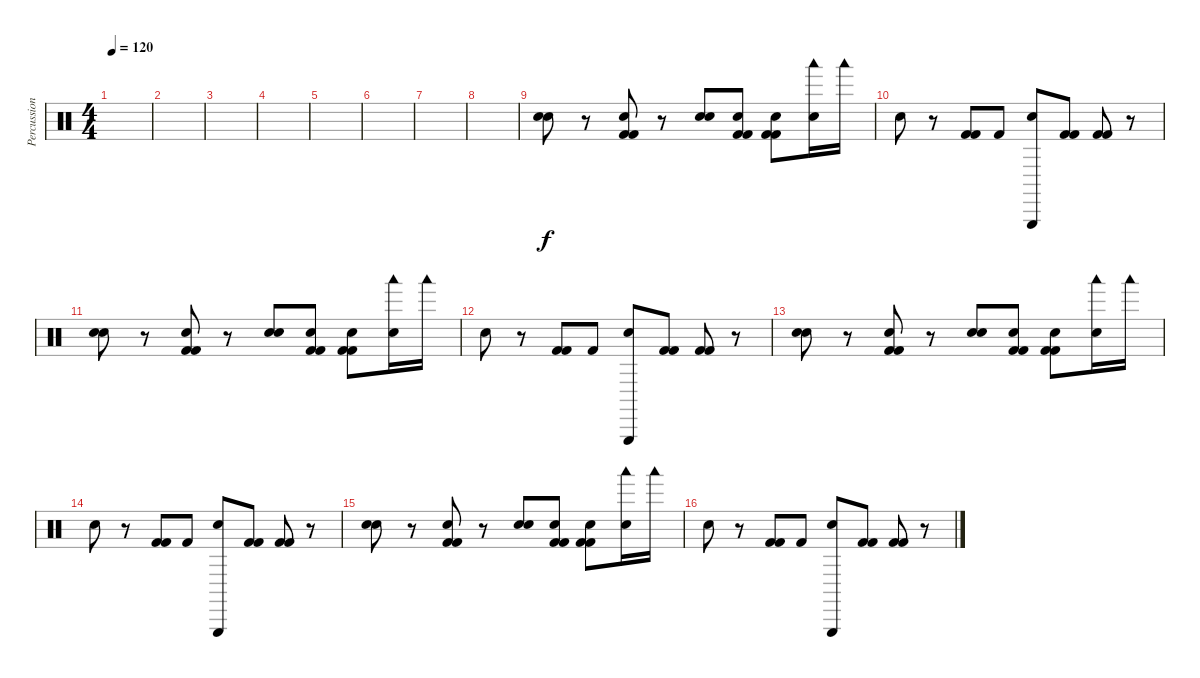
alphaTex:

\track ("Percussions" "Percussion") {instrument percussion}
\staff {score}
\articulation defaults
\ts (4 4)
\tempo 120
\clef neutral
\ks c
|
|
|
|
|
|
|
|
("Snare (hit) 2" "Metronome (bell)").8 r.8 ("Kick (hit) 2" "Metronome (bell)" "Kick (hit) 2").8 r.8 ("Snare (hit) 2" "Metronome (bell)").8 ("Kick (hit) 2" "Kick (hit) 2" "Metronome (bell)").8 ("Kick (hit) 2" "Kick (hit) 2" "Metronome (bell)").8 ("Woodblock low (hit)" "Metronome (bell)").16 "Woodblock low (hit)".16 |
"Snare (hit) 2".8 r.8 ("Kick (hit) 2" "Kick (hit) 2").8 "Kick (hit) 2".8 ("Snare (hit) 2" "Triangle (hit)").8 ("Kick (hit) 2" "Kick (hit) 2").8 ("Kick (hit) 2" "Kick (hit) 2").8 r.8 |
("Snare (hit) 2" "Metronome (bell)").8 r.8 ("Kick (hit) 2" "Metronome (bell)" "Kick (hit) 2").8 r.8 ("Snare (hit) 2" "Metronome (bell)").8 ("Kick (hit) 2" "Kick (hit) 2" "Metronome (bell)").8 ("Kick (hit) 2" "Kick (hit) 2" "Metronome (bell)").8 ("Woodblock low (hit)" "Metronome (bell)").16 "Woodblock low (hit)".16 |
"Snare (hit) 2".8 r.8 ("Kick (hit) 2" "Kick (hit) 2").8 "Kick (hit) 2".8 ("Snare (hit) 2" "Triangle (hit)").8 ("Kick (hit) 2" "Kick (hit) 2").8 ("Kick (hit) 2" "Kick (hit) 2").8 r.8 |
("Snare (hit) 2" "Metronome (bell)").8 r.8 ("Kick (hit) 2" "Metronome (bell)" "Kick (hit) 2").8 r.8 ("Snare (hit) 2" "Metronome (bell)").8 ("Kick (hit) 2" "Kick (hit) 2" "Metronome (bell)").8 ("Kick (hit) 2" "Kick (hit) 2" "Metronome (bell)").8 ("Woodblock low (hit)" "Metronome (bell)").16 "Woodblock low (hit)".16 |
"Snare (hit) 2".8 r.8 ("Kick (hit) 2" "Kick (hit) 2").8 "Kick (hit) 2".8 ("Snare (hit) 2" "Triangle (hit)").8 ("Kick (hit) 2" "Kick (hit) 2").8 ("Kick (hit) 2" "Kick (hit) 2").8 r.8 |
("Snare (hit) 2" "Metronome (bell)").8 r.8 ("Kick (hit) 2" "Metronome (bell)" "Kick (hit) 2").8 r.8 ("Snare (hit) 2" "Metronome (bell)").8 ("Kick (hit) 2" "Kick (hit) 2" "Metronome (bell)").8 ("Kick (hit) 2" "Kick (hit) 2" "Metronome (bell)").8 ("Woodblock low (hit)" "Metronome (bell)").16 "Woodblock low (hit)".16 |
"Snare (hit) 2".8 r.8 ("Kick (hit) 2" "Kick (hit) 2").8 "Kick (hit) 2".8 ("Snare (hit) 2" "Triangle (hit)").8 ("Kick (hit) 2" "Kick (hit) 2").8 ("Kick (hit) 2" "Kick (hit) 2").8 r.8
